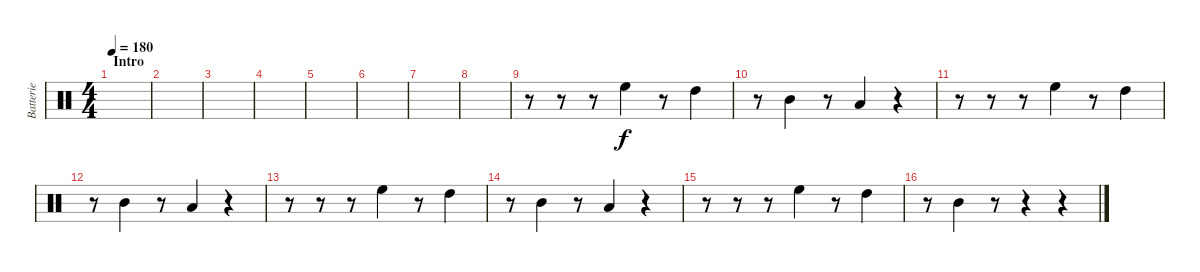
\track ("Batterie" "Batterie") {instrument percussion}
\staff {score}
\articulation defaults
\ts (4 4)
\section ("" "Intro")
\tempo 180
\clef neutral
\ks c
|
|
|
|
|
|
|
|
r.8 r.8 r.8 "High Floor Tom (hit)".4 r.8 "High Tom (hit)".4 |
r.8 "Mid Tom (hit)".4 r.8 "Low Tom (hit)".4 r.4 |
r.8 r.8 r.8 "High Floor Tom (hit)".4 r.8 "High Tom (hit)".4 |
r.8 "Mid Tom (hit)".4 r.8 "Low Tom (hit)".4 r.4 |
r.8 r.8 r.8 "High Floor Tom (hit)".4 r.8 "High Tom (hit)".4 |
r.8 "Mid Tom (hit)".4 r.8 "Low Tom (hit)".4 r.4 |
r.8 r.8 r.8 "High Floor Tom (hit)".4 r.8 "High Tom (hit)".4 |
r.8 "Mid Tom (hit)".4 r.8 r.4 r.4
